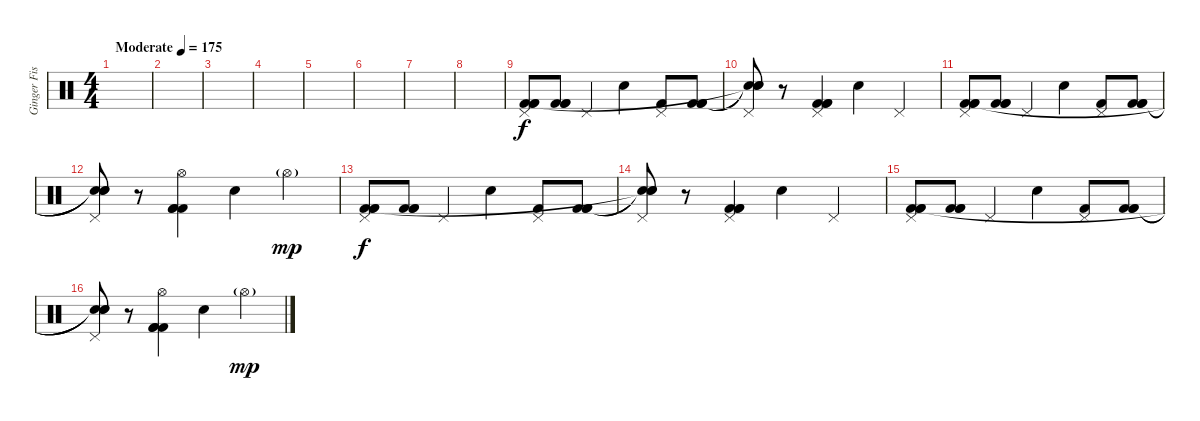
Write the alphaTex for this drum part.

\track ("Ginger Fish" "Ginger Fis") {instrument percussion}
\staff {score}
\articulation defaults
\ts (4 4)
\tempo (175 "Moderate")
\clef neutral
\ks c
|
|
|
|
|
|
|
|
("Pedal Hi-Hat (hit)" "Kick (hit) 2" "Kick (hit) 2" "Kick (hit) 2").8 ("Kick (hit) 2" "Kick (hit) 2" "Kick (hit) 2").8 "Pedal Hi-Hat (hit)".4 "Snare (hit) 2".4 ("Pedal Hi-Hat (hit)" "Kick (hit) 2").8 ("Kick (hit) 2" "Kick (hit) 2" "Kick (hit) 2").8 |
("Pedal Hi-Hat (hit)" "Snare (hit)"{t} "Snare (hit)"{t} "Snare (hit)"{t}).8 r.8 ("Pedal Hi-Hat (hit)" "Kick (hit) 2" "Kick (hit) 2" "Kick (hit) 2").4 "Snare (hit) 2".4 "Pedal Hi-Hat (hit)".4 |
("Pedal Hi-Hat (hit)" "Kick (hit) 2" "Kick (hit) 2" "Kick (hit) 2").8 ("Kick (hit) 2" "Kick (hit) 2" "Kick (hit) 2").8 "Pedal Hi-Hat (hit)".4 "Snare (hit) 2".4 ("Pedal Hi-Hat (hit)" "Kick (hit) 2").8 ("Kick (hit) 2" "Kick (hit) 2" "Kick (hit) 2").8 |
("Pedal Hi-Hat (hit)" "Snare (hit)"{t} "Snare (hit)"{t} "Snare (hit)"{t}).8 r.8 ("Hi-Hat (open)" "Kick (hit) 2" "Kick (hit) 2" "Kick (hit) 2").4 "Snare (hit) 2".4 "Hi-Hat (open)"{g}.4{dy mp} |
("Pedal Hi-Hat (hit)" "Kick (hit) 2" "Kick (hit) 2" "Kick (hit) 2").8{dy f} ("Kick (hit) 2" "Kick (hit) 2" "Kick (hit) 2").8 "Pedal Hi-Hat (hit)".4 "Snare (hit) 2".4 ("Pedal Hi-Hat (hit)" "Kick (hit) 2").8 ("Kick (hit) 2" "Kick (hit) 2" "Kick (hit) 2").8 |
("Pedal Hi-Hat (hit)" "Snare (hit)"{t} "Snare (hit)"{t} "Snare (hit)"{t}).8 r.8 ("Pedal Hi-Hat (hit)" "Kick (hit) 2" "Kick (hit) 2" "Kick (hit) 2").4 "Snare (hit) 2".4 "Pedal Hi-Hat (hit)".4 |
("Pedal Hi-Hat (hit)" "Kick (hit) 2" "Kick (hit) 2" "Kick (hit) 2").8 ("Kick (hit) 2" "Kick (hit) 2" "Kick (hit) 2").8 "Pedal Hi-Hat (hit)".4 "Snare (hit) 2".4 ("Pedal Hi-Hat (hit)" "Kick (hit) 2").8 ("Kick (hit) 2" "Kick (hit) 2" "Kick (hit) 2").8 |
("Pedal Hi-Hat (hit)" "Snare (hit)"{t} "Snare (hit)"{t} "Snare (hit)"{t}).8 r.8 ("Hi-Hat (open)" "Kick (hit) 2" "Kick (hit) 2" "Kick (hit) 2").4 "Snare (hit) 2".4 "Hi-Hat (open)"{g}.4{dy mp}
